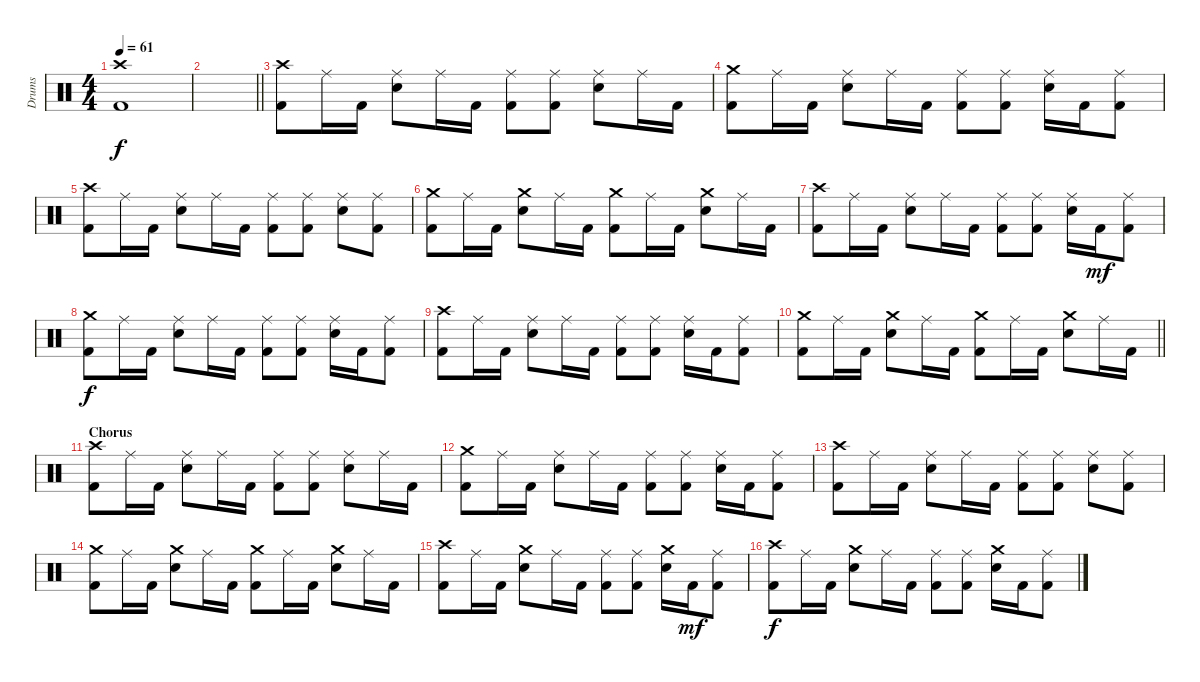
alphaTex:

\track ("Drums" "Drums") {instrument percussion}
\staff {score}
\articulation defaults
\ts (4 4)
\tempo 61
\clef neutral
\ks c
("Crash high (hit)" "Kick (hit) 2").1{dy f} |
\barLineRight lightlight
|
\section ("" "")
("Crash high (hit)" "Kick (hit) 2").8 "Ride (middle)".16 "Kick (hit) 2".16 ("Ride (middle)" "Electric Snare (hit)").8 "Ride (middle)".16 "Kick (hit) 2".16 ("Ride (middle)" "Kick (hit) 2").8 ("Ride (middle)" "Kick (hit) 2").8 ("Ride (middle)" "Electric Snare (hit)").8 "Ride (middle)".16 "Kick (hit) 2".16 |
("Crash medium (hit)" "Kick (hit) 2").8 "Ride (middle)".16 "Kick (hit) 2".16 ("Ride (middle)" "Electric Snare (hit)").8 "Ride (middle)".16 "Kick (hit) 2".16 ("Ride (middle)" "Kick (hit) 2").8 ("Ride (middle)" "Kick (hit) 2").8 ("Ride (middle)" "Electric Snare (hit)").16 "Kick (hit) 2".16 ("Ride (middle)" "Kick (hit) 2").8 |
("Crash high (hit)" "Kick (hit) 2").8 "Ride (middle)".16 "Kick (hit) 2".16 ("Ride (middle)" "Electric Snare (hit)").8 "Ride (middle)".16 "Kick (hit) 2".16 ("Ride (middle)" "Kick (hit) 2").8 ("Ride (middle)" "Kick (hit) 2").8 ("Ride (middle)" "Electric Snare (hit)").8 ("Ride (middle)" "Kick (hit) 2").8 |
("Crash medium (hit)" "Kick (hit) 2").8 "Ride (middle)".16 "Kick (hit) 2".16 ("Crash medium (hit)" "Electric Snare (hit)").8 "Ride (middle)".16 "Kick (hit) 2".16 ("Crash medium (hit)" "Kick (hit) 2").8 "Ride (middle)".16 "Kick (hit) 2".16 ("Crash medium (hit)" "Electric Snare (hit)").8 "Ride (middle)".16 "Kick (hit) 2".16 |
("Crash high (hit)" "Kick (hit) 2").8 "Ride (middle)".16 "Kick (hit) 2".16 ("Ride (middle)" "Electric Snare (hit)").8 "Ride (middle)".16 "Kick (hit) 2".16 ("Ride (middle)" "Kick (hit) 2").8 ("Ride (middle)" "Kick (hit) 2").8 ("Ride (middle)" "Electric Snare (hit)").16 "Kick (hit) 2".16{dy mf} ("Ride (middle)" "Kick (hit) 2").8 |
("Crash medium (hit)" "Kick (hit) 2").8{dy f} "Ride (middle)".16 "Kick (hit) 2".16 ("Ride (middle)" "Electric Snare (hit)").8 "Ride (middle)".16 "Kick (hit) 2".16 ("Ride (middle)" "Kick (hit) 2").8 ("Ride (middle)" "Kick (hit) 2").8 ("Ride (middle)" "Electric Snare (hit)").16 "Kick (hit) 2".16 ("Ride (middle)" "Kick (hit) 2").8 |
("Crash high (hit)" "Kick (hit) 2").8 "Ride (middle)".16 "Kick (hit) 2".16 ("Ride (middle)" "Electric Snare (hit)").8 "Ride (middle)".16 "Kick (hit) 2".16 ("Ride (middle)" "Kick (hit) 2").8 ("Ride (middle)" "Kick (hit) 2").8 ("Ride (middle)" "Electric Snare (hit)").16 "Kick (hit) 2".16 ("Ride (middle)" "Kick (hit) 2").8 |
\barLineRight lightlight
("Crash medium (hit)" "Kick (hit) 2").8 "Ride (middle)".16 "Kick (hit) 2".16 ("Crash medium (hit)" "Electric Snare (hit)").8 "Ride (middle)".16 "Kick (hit) 2".16 ("Crash medium (hit)" "Kick (hit) 2").8 "Ride (middle)".16 "Kick (hit) 2".16 ("Crash medium (hit)" "Electric Snare (hit)").8 "Ride (middle)".16 "Kick (hit) 2".16 |
\section ("" "Chorus")
("Crash high (hit)" "Kick (hit) 2").8 "Ride (middle)".16 "Kick (hit) 2".16 ("Ride (middle)" "Electric Snare (hit)").8 "Ride (middle)".16 "Kick (hit) 2".16 ("Ride (middle)" "Kick (hit) 2").8 ("Ride (middle)" "Kick (hit) 2").8 ("Ride (middle)" "Electric Snare (hit)").8 "Ride (middle)".16 "Kick (hit) 2".16 |
("Crash medium (hit)" "Kick (hit) 2").8 "Ride (middle)".16 "Kick (hit) 2".16 ("Ride (middle)" "Electric Snare (hit)").8 "Ride (middle)".16 "Kick (hit) 2".16 ("Ride (middle)" "Kick (hit) 2").8 ("Ride (middle)" "Kick (hit) 2").8 ("Ride (middle)" "Electric Snare (hit)").16 "Kick (hit) 2".16 ("Ride (middle)" "Kick (hit) 2").8 |
("Crash high (hit)" "Kick (hit) 2").8 "Ride (middle)".16 "Kick (hit) 2".16 ("Ride (middle)" "Electric Snare (hit)").8 "Ride (middle)".16 "Kick (hit) 2".16 ("Ride (middle)" "Kick (hit) 2").8 ("Ride (middle)" "Kick (hit) 2").8 ("Ride (middle)" "Electric Snare (hit)").8 ("Ride (middle)" "Kick (hit) 2").8 |
("Crash medium (hit)" "Kick (hit) 2").8 "Ride (middle)".16 "Kick (hit) 2".16 ("Crash medium (hit)" "Electric Snare (hit)").8 "Ride (middle)".16 "Kick (hit) 2".16 ("Crash medium (hit)" "Kick (hit) 2").8 "Ride (middle)".16 "Kick (hit) 2".16 ("Crash medium (hit)" "Electric Snare (hit)").8 "Ride (middle)".16 "Kick (hit) 2".16 |
("Crash high (hit)" "Kick (hit) 2").8 "Ride (middle)".16 "Kick (hit) 2".16 ("Crash medium (hit)" "Electric Snare (hit)").8 "Ride (middle)".16 "Kick (hit) 2".16 ("Ride (middle)" "Kick (hit) 2").8 ("Ride (middle)" "Kick (hit) 2").8 ("Crash medium (hit)" "Electric Snare (hit)").16 "Kick (hit) 2".16{dy mf} ("Ride (middle)" "Kick (hit) 2").8 |
("Crash high (hit)" "Kick (hit) 2").8{dy f} "Ride (middle)".16 "Kick (hit) 2".16 ("Crash medium (hit)" "Electric Snare (hit)").8 "Ride (middle)".16 "Kick (hit) 2".16 ("Ride (middle)" "Kick (hit) 2").8 ("Ride (middle)" "Kick (hit) 2").8 ("Crash medium (hit)" "Electric Snare (hit)").16 "Kick (hit) 2".16 ("Ride (middle)" "Kick (hit) 2").8
